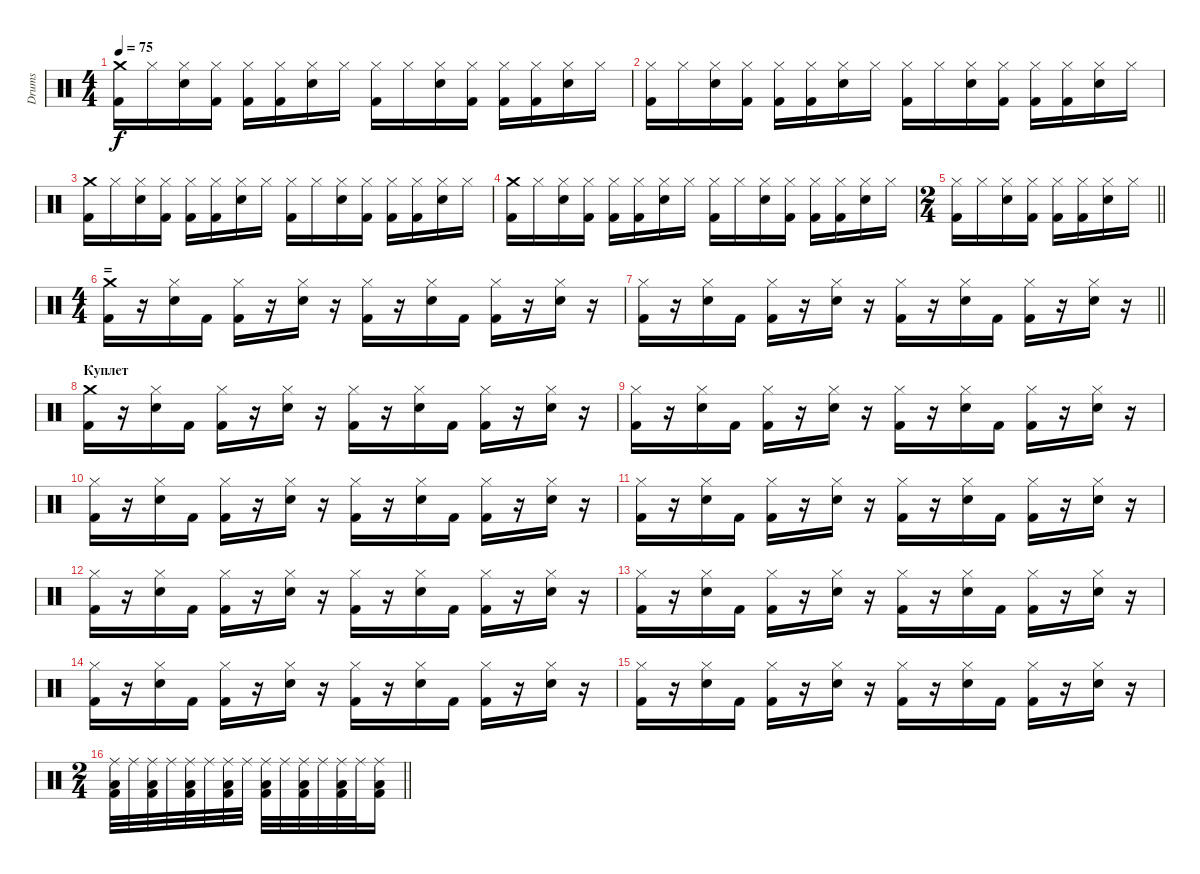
\track ("Drums" "Drums") {instrument percussion}
\staff {score}
\articulation defaults
\ts (4 4)
\tempo 75
\clef neutral
\ks c
("Crash medium (hit)" "Kick (hit) 2").16{dy f} "Hi-Hat (closed)".16 ("Hi-Hat (closed)" "Snare (hit) 2").16 ("Hi-Hat (closed)" "Kick (hit) 2").16 ("Hi-Hat (closed)" "Kick (hit) 2").16 ("Hi-Hat (closed)" "Kick (hit) 2").16 ("Hi-Hat (closed)" "Snare (hit) 2").16 "Hi-Hat (closed)".16 ("Hi-Hat (closed)" "Kick (hit) 2").16 "Hi-Hat (closed)".16 ("Hi-Hat (closed)" "Snare (hit) 2").16 ("Hi-Hat (closed)" "Kick (hit) 2").16 ("Hi-Hat (closed)" "Kick (hit) 2").16 ("Hi-Hat (closed)" "Kick (hit) 2").16 ("Hi-Hat (closed)" "Snare (hit) 2").16 "Hi-Hat (closed)".16 |
("Hi-Hat (closed)" "Kick (hit) 2").16 "Hi-Hat (closed)".16 ("Hi-Hat (closed)" "Snare (hit) 2").16 ("Hi-Hat (closed)" "Kick (hit) 2").16 ("Hi-Hat (closed)" "Kick (hit) 2").16 ("Hi-Hat (closed)" "Kick (hit) 2").16 ("Hi-Hat (closed)" "Snare (hit) 2").16 "Hi-Hat (closed)".16 ("Hi-Hat (closed)" "Kick (hit) 2").16 "Hi-Hat (closed)".16 ("Hi-Hat (closed)" "Snare (hit) 2").16 ("Hi-Hat (closed)" "Kick (hit) 2").16 ("Hi-Hat (closed)" "Kick (hit) 2").16 ("Hi-Hat (closed)" "Kick (hit) 2").16 ("Hi-Hat (closed)" "Snare (hit) 2").16 "Hi-Hat (closed)".16 |
("Crash medium (hit)" "Kick (hit) 2").16 "Hi-Hat (closed)".16 ("Hi-Hat (closed)" "Snare (hit) 2").16 ("Hi-Hat (closed)" "Kick (hit) 2").16 ("Hi-Hat (closed)" "Kick (hit) 2").16 ("Hi-Hat (closed)" "Kick (hit) 2").16 ("Hi-Hat (closed)" "Snare (hit) 2").16 "Hi-Hat (closed)".16 ("Hi-Hat (closed)" "Kick (hit) 2").16 "Hi-Hat (closed)".16 ("Hi-Hat (closed)" "Snare (hit) 2").16 ("Hi-Hat (closed)" "Kick (hit) 2").16 ("Hi-Hat (closed)" "Kick (hit) 2").16 ("Hi-Hat (closed)" "Kick (hit) 2").16 ("Hi-Hat (closed)" "Snare (hit) 2").16 "Hi-Hat (closed)".16 |
("Crash medium (hit)" "Kick (hit) 2").16 "Hi-Hat (closed)".16 ("Hi-Hat (closed)" "Snare (hit) 2").16 ("Hi-Hat (closed)" "Kick (hit) 2").16 ("Hi-Hat (closed)" "Kick (hit) 2").16 ("Hi-Hat (closed)" "Kick (hit) 2").16 ("Hi-Hat (closed)" "Snare (hit) 2").16 "Hi-Hat (closed)".16 ("Hi-Hat (closed)" "Kick (hit) 2").16 "Hi-Hat (closed)".16 ("Hi-Hat (closed)" "Snare (hit) 2").16 ("Hi-Hat (closed)" "Kick (hit) 2").16 ("Hi-Hat (closed)" "Kick (hit) 2").16 ("Hi-Hat (closed)" "Kick (hit) 2").16 ("Hi-Hat (closed)" "Snare (hit) 2").16 "Hi-Hat (closed)".16 |
\ts (2 4)
\barLineRight lightlight
("Hi-Hat (closed)" "Kick (hit) 2").16 "Hi-Hat (closed)".16 ("Hi-Hat (closed)" "Snare (hit) 2").16 ("Hi-Hat (closed)" "Kick (hit) 2").16 ("Hi-Hat (closed)" "Kick (hit) 2").16 ("Hi-Hat (closed)" "Kick (hit) 2").16 ("Hi-Hat (closed)" "Snare (hit) 2").16 "Hi-Hat (closed)".16 |
\ts (4 4)
\section ("" "=")
("Crash medium (hit)" "Kick (hit) 2").16 r.16 ("Hi-Hat (closed)" "Snare (hit) 2").16 "Kick (hit) 2".16 ("Hi-Hat (closed)" "Kick (hit) 2").16 r.16 ("Hi-Hat (closed)" "Snare (hit) 2").16 r.16 ("Hi-Hat (closed)" "Kick (hit) 2").16 r.16 ("Hi-Hat (closed)" "Snare (hit) 2").16 "Kick (hit) 2".16 ("Hi-Hat (closed)" "Kick (hit) 2").16 r.16 ("Hi-Hat (closed)" "Snare (hit) 2").16 r.16 |
\barLineRight lightlight
("Hi-Hat (closed)" "Kick (hit) 2").16 r.16 ("Hi-Hat (closed)" "Snare (hit) 2").16 "Kick (hit) 2".16 ("Hi-Hat (closed)" "Kick (hit) 2").16 r.16 ("Hi-Hat (closed)" "Snare (hit) 2").16 r.16 ("Hi-Hat (closed)" "Kick (hit) 2").16 r.16 ("Hi-Hat (closed)" "Snare (hit) 2").16 "Kick (hit) 2".16 ("Hi-Hat (closed)" "Kick (hit) 2").16 r.16 ("Hi-Hat (closed)" "Snare (hit) 2").16 r.16 |
\section ("" "Куплет")
("Crash medium (hit)" "Kick (hit) 2").16 r.16 ("Hi-Hat (closed)" "Snare (hit) 2").16 "Kick (hit) 2".16 ("Hi-Hat (closed)" "Kick (hit) 2").16 r.16 ("Hi-Hat (closed)" "Snare (hit) 2").16 r.16 ("Hi-Hat (closed)" "Kick (hit) 2").16 r.16 ("Hi-Hat (closed)" "Snare (hit) 2").16 "Kick (hit) 2".16 ("Hi-Hat (closed)" "Kick (hit) 2").16 r.16 ("Hi-Hat (closed)" "Snare (hit) 2").16 r.16 |
("Hi-Hat (closed)" "Kick (hit) 2").16 r.16 ("Hi-Hat (closed)" "Snare (hit) 2").16 "Kick (hit) 2".16 ("Hi-Hat (closed)" "Kick (hit) 2").16 r.16 ("Hi-Hat (closed)" "Snare (hit) 2").16 r.16 ("Hi-Hat (closed)" "Kick (hit) 2").16 r.16 ("Hi-Hat (closed)" "Snare (hit) 2").16 "Kick (hit) 2".16 ("Hi-Hat (closed)" "Kick (hit) 2").16 r.16 ("Hi-Hat (closed)" "Snare (hit) 2").16 r.16 |
("Hi-Hat (closed)" "Kick (hit) 2").16 r.16 ("Hi-Hat (closed)" "Snare (hit) 2").16 "Kick (hit) 2".16 ("Hi-Hat (closed)" "Kick (hit) 2").16 r.16 ("Hi-Hat (closed)" "Snare (hit) 2").16 r.16 ("Hi-Hat (closed)" "Kick (hit) 2").16 r.16 ("Hi-Hat (closed)" "Snare (hit) 2").16 "Kick (hit) 2".16 ("Hi-Hat (closed)" "Kick (hit) 2").16 r.16 ("Hi-Hat (closed)" "Snare (hit) 2").16 r.16 |
("Hi-Hat (closed)" "Kick (hit) 2").16 r.16 ("Hi-Hat (closed)" "Snare (hit) 2").16 "Kick (hit) 2".16 ("Hi-Hat (closed)" "Kick (hit) 2").16 r.16 ("Hi-Hat (closed)" "Snare (hit) 2").16 r.16 ("Hi-Hat (closed)" "Kick (hit) 2").16 r.16 ("Hi-Hat (closed)" "Snare (hit) 2").16 "Kick (hit) 2".16 ("Hi-Hat (closed)" "Kick (hit) 2").16 r.16 ("Hi-Hat (closed)" "Snare (hit) 2").16 r.16 |
("Hi-Hat (closed)" "Kick (hit) 2").16 r.16 ("Hi-Hat (closed)" "Snare (hit) 2").16 "Kick (hit) 2".16 ("Hi-Hat (closed)" "Kick (hit) 2").16 r.16 ("Hi-Hat (closed)" "Snare (hit) 2").16 r.16 ("Hi-Hat (closed)" "Kick (hit) 2").16 r.16 ("Hi-Hat (closed)" "Snare (hit) 2").16 "Kick (hit) 2".16 ("Hi-Hat (closed)" "Kick (hit) 2").16 r.16 ("Hi-Hat (closed)" "Snare (hit) 2").16 r.16 |
("Hi-Hat (closed)" "Kick (hit) 2").16 r.16 ("Hi-Hat (closed)" "Snare (hit) 2").16 "Kick (hit) 2".16 ("Hi-Hat (closed)" "Kick (hit) 2").16 r.16 ("Hi-Hat (closed)" "Snare (hit) 2").16 r.16 ("Hi-Hat (closed)" "Kick (hit) 2").16 r.16 ("Hi-Hat (closed)" "Snare (hit) 2").16 "Kick (hit) 2".16 ("Hi-Hat (closed)" "Kick (hit) 2").16 r.16 ("Hi-Hat (closed)" "Snare (hit) 2").16 r.16 |
("Hi-Hat (closed)" "Kick (hit) 2").16 r.16 ("Hi-Hat (closed)" "Snare (hit) 2").16 "Kick (hit) 2".16 ("Hi-Hat (closed)" "Kick (hit) 2").16 r.16 ("Hi-Hat (closed)" "Snare (hit) 2").16 r.16 ("Hi-Hat (closed)" "Kick (hit) 2").16 r.16 ("Hi-Hat (closed)" "Snare (hit) 2").16 "Kick (hit) 2".16 ("Hi-Hat (closed)" "Kick (hit) 2").16 r.16 ("Hi-Hat (closed)" "Snare (hit) 2").16 r.16 |
("Hi-Hat (closed)" "Kick (hit) 2").16 r.16 ("Hi-Hat (closed)" "Snare (hit) 2").16 "Kick (hit) 2".16 ("Hi-Hat (closed)" "Kick (hit) 2").16 r.16 ("Hi-Hat (closed)" "Snare (hit) 2").16 r.16 ("Hi-Hat (closed)" "Kick (hit) 2").16 r.16 ("Hi-Hat (closed)" "Snare (hit) 2").16 "Kick (hit) 2".16 ("Hi-Hat (closed)" "Kick (hit) 2").16 r.16 ("Hi-Hat (closed)" "Snare (hit) 2").16 r.16{volume 3} |
\ts (2 4)
\barLineRight lightlight
("Low Floor Tom (hit)" "Kick (hit) 2" "Ride (middle)").32{volume 13} "Ride (middle)".32 ("Low Floor Tom (hit)" "Kick (hit) 2" "Ride (middle)").32 "Ride (middle)".32 ("Low Floor Tom (hit)" "Kick (hit) 2" "Ride (middle)").32 "Ride (middle)".32 ("Low Floor Tom (hit)" "Kick (hit) 2" "Ride (middle)").32 "Ride (middle)".32 ("Low Floor Tom (hit)" "Kick (hit) 2" "Ride (middle)").32 "Ride (middle)".32 ("Low Floor Tom (hit)" "Kick (hit) 2" "Ride (middle)").32 "Ride (middle)".32 ("Low Floor Tom (hit)" "Kick (hit) 2" "Ride (middle)").32 "Ride (middle)".32 ("Low Floor Tom (hit)" "Kick (hit) 2" "Ride (middle)").16
